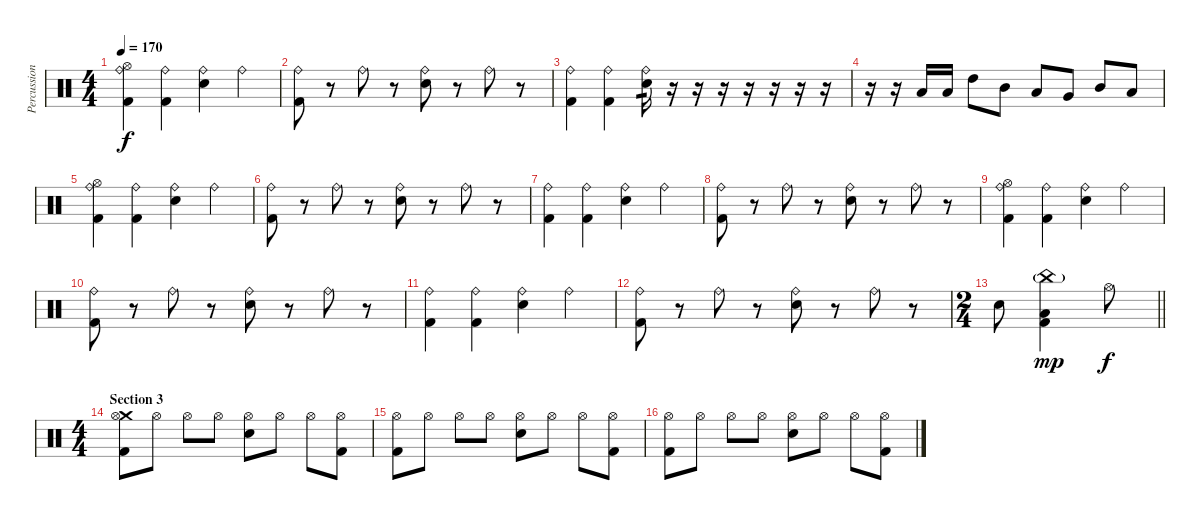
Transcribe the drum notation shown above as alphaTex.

\track ("Percussions" "Percussion") {instrument percussion}
\staff {score}
\articulation defaults
\ts (4 4)
\tempo 170
\clef neutral
\ks c
("Hi-Hat (open)" "Ride (bell)" "Kick (hit) 2").4{dy f} ("Ride (bell)" "Kick (hit) 2").4 ("Ride (bell)" "Electric Snare (hit)").4 "Ride (bell)".4 |
("Ride (bell)" "Kick (hit) 2").8 r.8 "Ride (bell)".8 r.8 ("Ride (bell)" "Electric Snare (hit)").8 r.8 "Ride (bell)".8 r.8 |
("Ride (bell)" "Kick (hit) 2").4 ("Ride (bell)" "Kick (hit) 2").4 ("Ride (bell)" "Electric Snare (hit)").16{tp 1} r.16 r.16 r.16 r.16 r.16 r.16 r.16 |
r.16 r.16 "Low Tom (hit)".16 "Low Tom (hit)".16 "High Tom (hit)".8 "Mid Tom (hit)".8 "Low Floor Tom (hit)".8 "Very Low Tom (hit)".8 "Mid Tom (hit)".8 "Low Tom (hit)".8 |
("Hi-Hat (open)" "Ride (bell)" "Kick (hit) 2").4 ("Ride (bell)" "Kick (hit) 2").4 ("Ride (bell)" "Electric Snare (hit)").4 "Ride (bell)".4 |
("Ride (bell)" "Kick (hit) 2").8 r.8 "Ride (bell)".8 r.8 ("Ride (bell)" "Electric Snare (hit)").8 r.8 "Ride (bell)".8 r.8 |
("Ride (bell)" "Kick (hit) 2").4 ("Ride (bell)" "Kick (hit) 2").4 ("Ride (bell)" "Electric Snare (hit)").4 "Ride (bell)".4 |
("Ride (bell)" "Kick (hit) 2").8 r.8 "Ride (bell)".8 r.8 ("Ride (bell)" "Electric Snare (hit)").8 r.8 "Ride (bell)".8 r.8 |
("Hi-Hat (open)" "Ride (bell)" "Kick (hit) 2").4 ("Ride (bell)" "Kick (hit) 2").4 ("Ride (bell)" "Electric Snare (hit)").4 "Ride (bell)".4 |
("Ride (bell)" "Kick (hit) 2").8 r.8 "Ride (bell)".8 r.8 ("Ride (bell)" "Electric Snare (hit)").8 r.8 "Ride (bell)".8 r.8 |
("Ride (bell)" "Kick (hit) 2").4 ("Ride (bell)" "Kick (hit) 2").4 ("Ride (bell)" "Electric Snare (hit)").4 "Ride (bell)".4 |
("Ride (bell)" "Kick (hit) 2").8 r.8 "Ride (bell)".8 r.8 ("Ride (bell)" "Electric Snare (hit)").8 r.8 "Ride (bell)".8 r.8 |
\ts (2 4)
\barLineRight lightlight "Electric Snare (hit)".8
("China (hit)"{g} "Low Tom (hit)" "Kick (hit) 2").4{dy mp} "Hi-Hat (open)".8{dy f} |
\ts (4 4)
\section ("" "Section 3")
("Crash medium (hit)" "Hi-Hat (open)" "Kick (hit) 2").8 "Hi-Hat (open)".8 "Hi-Hat (open)".8 "Hi-Hat (open)".8 ("Hi-Hat (open)" "Electric Snare (hit)").8 "Hi-Hat (open)".8 "Hi-Hat (open)".8 ("Hi-Hat (open)" "Kick (hit) 2").8 |
("Hi-Hat (open)" "Kick (hit) 2").8 "Hi-Hat (open)".8 "Hi-Hat (open)".8 "Hi-Hat (open)".8 ("Hi-Hat (open)" "Electric Snare (hit)").8 "Hi-Hat (open)".8 "Hi-Hat (open)".8 ("Hi-Hat (open)" "Kick (hit) 2").8 |
("Hi-Hat (open)" "Kick (hit) 2").8 "Hi-Hat (open)".8 "Hi-Hat (open)".8 "Hi-Hat (open)".8 ("Hi-Hat (open)" "Electric Snare (hit)").8 "Hi-Hat (open)".8 "Hi-Hat (open)".8 ("Hi-Hat (open)" "Kick (hit) 2").8
